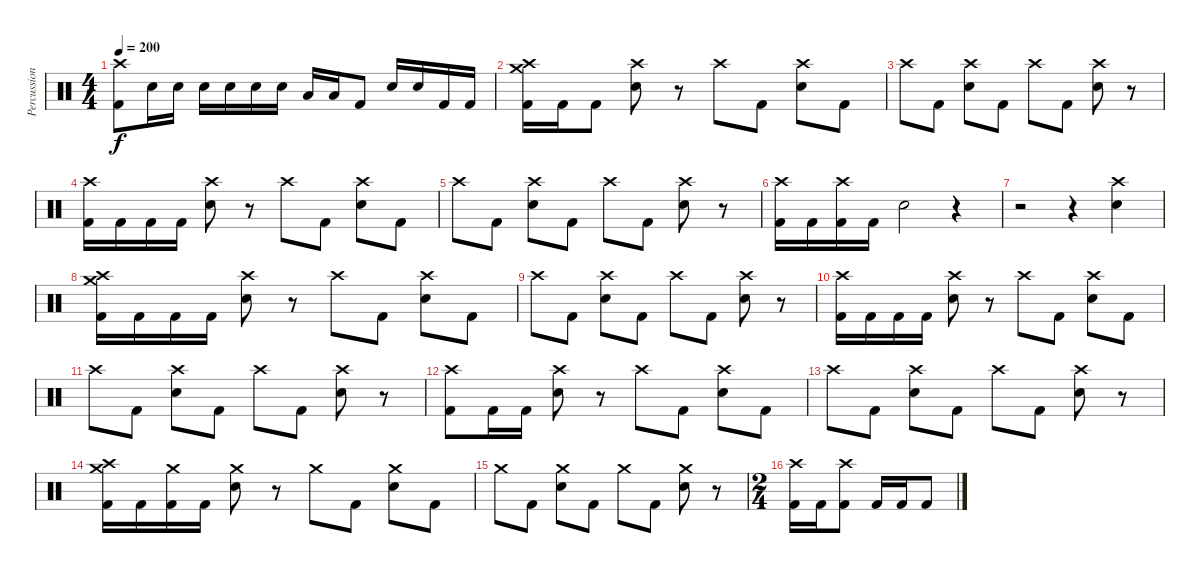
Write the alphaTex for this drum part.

\track ("Percussion" "Percussion") {instrument percussion}
\staff {score}
\articulation defaults
\ts (4 4)
\tempo 200
\clef neutral
\ks c
("Crash high (hit)" "Kick (hit) 2").8{dy f} "Electric Snare (hit)".16 "Electric Snare (hit)".16 "Electric Snare (hit)".16 "Electric Snare (hit)".16 "Electric Snare (hit)".16 "Electric Snare (hit)".16 "Low Tom (hit)".16 "Low Tom (hit)".16 "Kick (hit) 2".8 "Electric Snare (hit)".16 "Electric Snare (hit)".16 "Kick (hit) 2".16 "Kick (hit) 2".16 |
("Crash medium (hit)" "Crash high (hit)" "Kick (hit) 2").16 "Kick (hit) 2".16 "Kick (hit) 2".8 ("Crash high (hit)" "Electric Snare (hit)").8 r.8 "Crash high (hit)".8 "Kick (hit) 2".8 ("Crash high (hit)" "Electric Snare (hit)").8 "Kick (hit) 2".8 |
"Crash high (hit)".8 "Kick (hit) 2".8 ("Crash high (hit)" "Electric Snare (hit)").8 "Kick (hit) 2".8 "Crash high (hit)".8 "Kick (hit) 2".8 ("Crash high (hit)" "Electric Snare (hit)").8 r.8 |
("Crash high (hit)" "Kick (hit) 2").16 "Kick (hit) 2".16 "Kick (hit) 2".16 "Kick (hit) 2".16 ("Crash high (hit)" "Electric Snare (hit)").8 r.8 "Crash high (hit)".8 "Kick (hit) 2".8 ("Crash high (hit)" "Electric Snare (hit)").8 "Kick (hit) 2".8 |
"Crash high (hit)".8 "Kick (hit) 2".8 ("Crash high (hit)" "Electric Snare (hit)").8 "Kick (hit) 2".8 "Crash high (hit)".8 "Kick (hit) 2".8 ("Crash high (hit)" "Electric Snare (hit)").8 r.8 |
("Crash high (hit)" "Kick (hit) 2").16 "Kick (hit) 2".16 ("Crash high (hit)" "Kick (hit) 2").16 "Kick (hit) 2".16 "Electric Snare (hit)".2 r.4 |
r.2 r.4 ("Crash high (hit)" "Electric Snare (hit)").4 |
("Crash medium (hit)" "Crash high (hit)" "Kick (hit) 2").16 "Kick (hit) 2".16 "Kick (hit) 2".16 "Kick (hit) 2".16 ("Crash high (hit)" "Electric Snare (hit)").8 r.8 "Crash high (hit)".8 "Kick (hit) 2".8 ("Crash high (hit)" "Electric Snare (hit)").8 "Kick (hit) 2".8 |
"Crash high (hit)".8 "Kick (hit) 2".8 ("Crash high (hit)" "Electric Snare (hit)").8 "Kick (hit) 2".8 "Crash high (hit)".8 "Kick (hit) 2".8 ("Crash high (hit)" "Electric Snare (hit)").8 r.8 |
("Crash high (hit)" "Kick (hit) 2").16 "Kick (hit) 2".16 "Kick (hit) 2".16 "Kick (hit) 2".16 ("Crash high (hit)" "Electric Snare (hit)").8 r.8 "Crash high (hit)".8 "Kick (hit) 2".8 ("Crash high (hit)" "Electric Snare (hit)").8 "Kick (hit) 2".8 |
"Crash high (hit)".8 "Kick (hit) 2".8 ("Crash high (hit)" "Electric Snare (hit)").8 "Kick (hit) 2".8 "Crash high (hit)".8 "Kick (hit) 2".8 ("Crash high (hit)" "Electric Snare (hit)").8 r.8 |
("Crash high (hit)" "Kick (hit) 2").8 "Kick (hit) 2".16 "Kick (hit) 2".16 ("Crash high (hit)" "Electric Snare (hit)").8 r.8 "Crash high (hit)".8 "Kick (hit) 2".8 ("Crash high (hit)" "Electric Snare (hit)").8 "Kick (hit) 2".8 |
"Crash high (hit)".8 "Kick (hit) 2".8 ("Crash high (hit)" "Electric Snare (hit)").8 "Kick (hit) 2".8 "Crash high (hit)".8 "Kick (hit) 2".8 ("Crash high (hit)" "Electric Snare (hit)").8 r.8 |
("Crash medium (hit)" "Crash high (hit)" "Kick (hit) 2").16 "Kick (hit) 2".16 ("Crash medium (hit)" "Kick (hit) 2").16 "Kick (hit) 2".16 ("Crash medium (hit)" "Electric Snare (hit)").8 r.8 "Crash medium (hit)".8 "Kick (hit) 2".8 ("Crash medium (hit)" "Electric Snare (hit)").8 "Kick (hit) 2".8 |
"Crash medium (hit)".8 "Kick (hit) 2".8 ("Crash medium (hit)" "Electric Snare (hit)").8 "Kick (hit) 2".8 "Crash medium (hit)".8 "Kick (hit) 2".8 ("Crash medium (hit)" "Electric Snare (hit)").8 r.8 |
\ts (2 4)
("Crash high (hit)" "Kick (hit) 2").16 "Kick (hit) 2".16 ("Crash high (hit)" "Kick (hit) 2").8 "Kick (hit) 2".16 "Kick (hit) 2".16 "Kick (hit) 2".8
